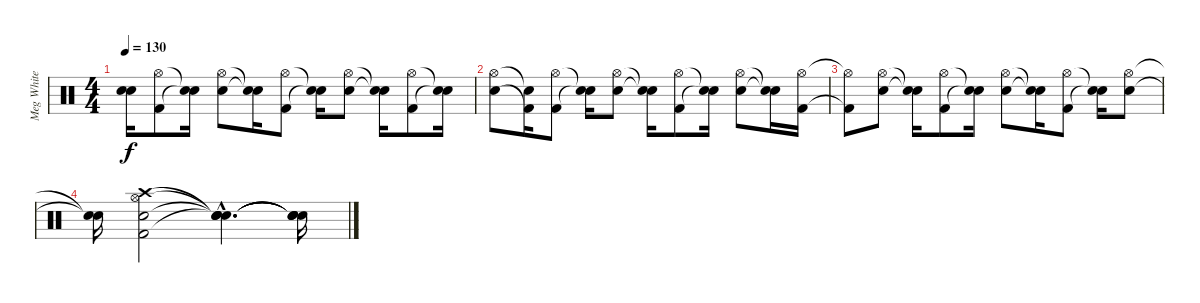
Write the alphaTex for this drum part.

\track ("Meg White" "Meg White") {instrument percussion}
\staff {score}
\articulation defaults
\ts (4 4)
\tempo 130
\clef neutral
\ks c
("Snare (hit)"{t} "Snare (hit)"{t}).16{dy f} ("Hi-Hat (open)" "Kick (hit) 2").8 ("Snare (hit)"{t} "Snare (hit)"{t}).16 ("Hi-Hat (open)" "Snare (hit) 2").8 ("Snare (hit)"{t} "Snare (hit)"{t}).16 ("Hi-Hat (open)" "Kick (hit) 2").8 ("Snare (hit)"{t} "Snare (hit)"{t}).16 ("Hi-Hat (open)" "Snare (hit) 2").8 ("Snare (hit)"{t} "Snare (hit)"{t}).16 ("Hi-Hat (open)" "Kick (hit) 2").8 ("Snare (hit)"{t} "Snare (hit)"{t}).16 |
("Hi-Hat (open)" "Snare (hit) 2").8 ("Snare (hit)"{t} "Kick (hit) 2"{t}).16 ("Hi-Hat (open)" "Kick (hit) 2").8 ("Snare (hit)"{t} "Snare (hit) 2"{t}).16 ("Hi-Hat (open)" "Snare (hit) 2").8 ("Snare (hit)"{t} "Snare (hit)"{t}).16 ("Hi-Hat (open)" "Kick (hit) 2").8 ("Snare (hit)"{t} "Snare (hit)"{t}).16 ("Hi-Hat (open)" "Snare (hit) 2").8 ("Snare (hit)"{t} "Snare (hit)"{t}).16 ("Hi-Hat (open)" "Kick (hit) 2").16 |
("Hi-Hat (open)"{t} "Kick (hit) 2"{t}).8 ("Hi-Hat (open)" "Snare (hit) 2").8 ("Snare (hit)"{t} "Snare (hit)"{t}).16 ("Hi-Hat (open)" "Kick (hit) 2").8 ("Snare (hit)"{t} "Snare (hit)"{t}).16 ("Hi-Hat (open)" "Snare (hit) 2").8 ("Snare (hit)"{t} "Snare (hit)"{t}).16 ("Hi-Hat (open)" "Kick (hit) 2").8 ("Snare (hit)"{t} "Snare (hit)"{t}).16 ("Hi-Hat (open)" "Snare (hit) 2").8 |
("Snare (hit)"{t} "Snare (hit)"{t}).16 ("Crash high (hit)" "Hi-Hat (open)" "Electric Snare (hit)" "Kick (hit) 2").2 ("Snare (hit)"{hac t} "Snare (hit)"{hac t} "Snare (hit)"{hac t} "Snare (hit)"{hac t}).4{d} ("Snare (hit)"{t} "Snare (hit)"{t} "Snare (hit)"{t} "Snare (hit)"{t}).16
